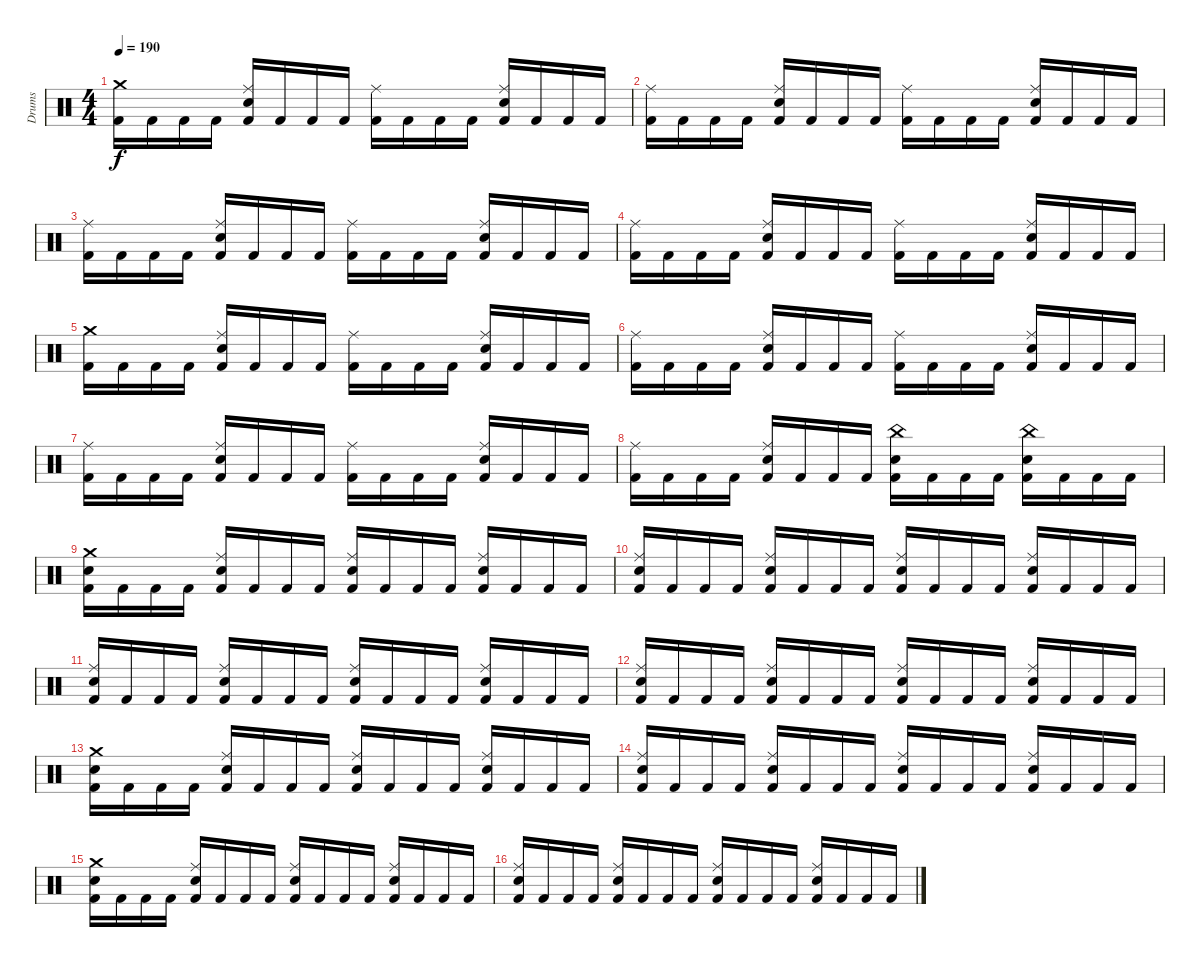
\track ("Drums" "Drums") {instrument percussion}
\staff {score}
\articulation defaults
\ts (4 4)
\tempo 190
\clef neutral
\ks c
("Crash medium (hit)" "Kick (hit) 2").16{dy f} "Kick (hit) 2".16 "Kick (hit) 2".16 "Kick (hit) 2".16 ("Ride (middle)" "Electric Snare (hit)" "Kick (hit) 2").16 "Kick (hit) 2".16 "Kick (hit) 2".16 "Kick (hit) 2".16 ("Ride (middle)" "Kick (hit) 2").16 "Kick (hit) 2".16 "Kick (hit) 2".16 "Kick (hit) 2".16 ("Ride (middle)" "Electric Snare (hit)" "Kick (hit) 2").16 "Kick (hit) 2".16 "Kick (hit) 2".16 "Kick (hit) 2".16 |
("Ride (middle)" "Kick (hit) 2").16 "Kick (hit) 2".16 "Kick (hit) 2".16 "Kick (hit) 2".16 ("Ride (middle)" "Electric Snare (hit)" "Kick (hit) 2").16 "Kick (hit) 2".16 "Kick (hit) 2".16 "Kick (hit) 2".16 ("Ride (middle)" "Kick (hit) 2").16 "Kick (hit) 2".16 "Kick (hit) 2".16 "Kick (hit) 2".16 ("Ride (middle)" "Electric Snare (hit)" "Kick (hit) 2").16 "Kick (hit) 2".16 "Kick (hit) 2".16 "Kick (hit) 2".16 |
("Ride (middle)" "Kick (hit) 2").16 "Kick (hit) 2".16 "Kick (hit) 2".16 "Kick (hit) 2".16 ("Ride (middle)" "Electric Snare (hit)" "Kick (hit) 2").16 "Kick (hit) 2".16 "Kick (hit) 2".16 "Kick (hit) 2".16 ("Ride (middle)" "Kick (hit) 2").16 "Kick (hit) 2".16 "Kick (hit) 2".16 "Kick (hit) 2".16 ("Ride (middle)" "Electric Snare (hit)" "Kick (hit) 2").16 "Kick (hit) 2".16 "Kick (hit) 2".16 "Kick (hit) 2".16 |
("Ride (middle)" "Kick (hit) 2").16 "Kick (hit) 2".16 "Kick (hit) 2".16 "Kick (hit) 2".16 ("Ride (middle)" "Electric Snare (hit)" "Kick (hit) 2").16 "Kick (hit) 2".16 "Kick (hit) 2".16 "Kick (hit) 2".16 ("Ride (middle)" "Kick (hit) 2").16 "Kick (hit) 2".16 "Kick (hit) 2".16 "Kick (hit) 2".16 ("Ride (middle)" "Electric Snare (hit)" "Kick (hit) 2").16 "Kick (hit) 2".16 "Kick (hit) 2".16 "Kick (hit) 2".16 |
("Crash medium (hit)" "Kick (hit) 2").16 "Kick (hit) 2".16 "Kick (hit) 2".16 "Kick (hit) 2".16 ("Ride (middle)" "Electric Snare (hit)" "Kick (hit) 2").16 "Kick (hit) 2".16 "Kick (hit) 2".16 "Kick (hit) 2".16 ("Ride (middle)" "Kick (hit) 2").16 "Kick (hit) 2".16 "Kick (hit) 2".16 "Kick (hit) 2".16 ("Ride (middle)" "Electric Snare (hit)" "Kick (hit) 2").16 "Kick (hit) 2".16 "Kick (hit) 2".16 "Kick (hit) 2".16 |
("Ride (middle)" "Kick (hit) 2").16 "Kick (hit) 2".16 "Kick (hit) 2".16 "Kick (hit) 2".16 ("Ride (middle)" "Electric Snare (hit)" "Kick (hit) 2").16 "Kick (hit) 2".16 "Kick (hit) 2".16 "Kick (hit) 2".16 ("Ride (middle)" "Kick (hit) 2").16 "Kick (hit) 2".16 "Kick (hit) 2".16 "Kick (hit) 2".16 ("Ride (middle)" "Electric Snare (hit)" "Kick (hit) 2").16 "Kick (hit) 2".16 "Kick (hit) 2".16 "Kick (hit) 2".16 |
("Ride (middle)" "Kick (hit) 2").16 "Kick (hit) 2".16 "Kick (hit) 2".16 "Kick (hit) 2".16 ("Ride (middle)" "Electric Snare (hit)" "Kick (hit) 2").16 "Kick (hit) 2".16 "Kick (hit) 2".16 "Kick (hit) 2".16 ("Ride (middle)" "Kick (hit) 2").16 "Kick (hit) 2".16 "Kick (hit) 2".16 "Kick (hit) 2".16 ("Ride (middle)" "Electric Snare (hit)" "Kick (hit) 2").16 "Kick (hit) 2".16 "Kick (hit) 2".16 "Kick (hit) 2".16 |
("Ride (middle)" "Kick (hit) 2").16 "Kick (hit) 2".16 "Kick (hit) 2".16 "Kick (hit) 2".16 ("Ride (middle)" "Electric Snare (hit)" "Kick (hit) 2").16 "Kick (hit) 2".16 "Kick (hit) 2".16 "Kick (hit) 2".16 ("China (hit)" "Electric Snare (hit)" "Kick (hit) 2").16 "Kick (hit) 2".16 "Kick (hit) 2".16 "Kick (hit) 2".16 ("China (hit)" "Electric Snare (hit)" "Kick (hit) 2").16 "Kick (hit) 2".16 "Kick (hit) 2".16 "Kick (hit) 2".16 |
("Crash medium (hit)" "Electric Snare (hit)" "Kick (hit) 2").16 "Kick (hit) 2".16 "Kick (hit) 2".16 "Kick (hit) 2".16 ("Ride (middle)" "Electric Snare (hit)" "Kick (hit) 2").16 "Kick (hit) 2".16 "Kick (hit) 2".16 "Kick (hit) 2".16 ("Ride (middle)" "Electric Snare (hit)" "Kick (hit) 2").16 "Kick (hit) 2".16 "Kick (hit) 2".16 "Kick (hit) 2".16 ("Ride (middle)" "Electric Snare (hit)" "Kick (hit) 2").16 "Kick (hit) 2".16 "Kick (hit) 2".16 "Kick (hit) 2".16 |
("Ride (middle)" "Electric Snare (hit)" "Kick (hit) 2").16 "Kick (hit) 2".16 "Kick (hit) 2".16 "Kick (hit) 2".16 ("Ride (middle)" "Electric Snare (hit)" "Kick (hit) 2").16 "Kick (hit) 2".16 "Kick (hit) 2".16 "Kick (hit) 2".16 ("Ride (middle)" "Electric Snare (hit)" "Kick (hit) 2").16 "Kick (hit) 2".16 "Kick (hit) 2".16 "Kick (hit) 2".16 ("Ride (middle)" "Electric Snare (hit)" "Kick (hit) 2").16 "Kick (hit) 2".16 "Kick (hit) 2".16 "Kick (hit) 2".16 |
("Ride (middle)" "Electric Snare (hit)" "Kick (hit) 2").16 "Kick (hit) 2".16 "Kick (hit) 2".16 "Kick (hit) 2".16 ("Ride (middle)" "Electric Snare (hit)" "Kick (hit) 2").16 "Kick (hit) 2".16 "Kick (hit) 2".16 "Kick (hit) 2".16 ("Ride (middle)" "Electric Snare (hit)" "Kick (hit) 2").16 "Kick (hit) 2".16 "Kick (hit) 2".16 "Kick (hit) 2".16 ("Ride (middle)" "Electric Snare (hit)" "Kick (hit) 2").16 "Kick (hit) 2".16 "Kick (hit) 2".16 "Kick (hit) 2".16 |
("Ride (middle)" "Electric Snare (hit)" "Kick (hit) 2").16 "Kick (hit) 2".16 "Kick (hit) 2".16 "Kick (hit) 2".16 ("Ride (middle)" "Electric Snare (hit)" "Kick (hit) 2").16 "Kick (hit) 2".16 "Kick (hit) 2".16 "Kick (hit) 2".16 ("Ride (middle)" "Electric Snare (hit)" "Kick (hit) 2").16 "Kick (hit) 2".16 "Kick (hit) 2".16 "Kick (hit) 2".16 ("Ride (middle)" "Electric Snare (hit)" "Kick (hit) 2").16 "Kick (hit) 2".16 "Kick (hit) 2".16 "Kick (hit) 2".16 |
("Crash medium (hit)" "Electric Snare (hit)" "Kick (hit) 2").16 "Kick (hit) 2".16 "Kick (hit) 2".16 "Kick (hit) 2".16 ("Ride (middle)" "Electric Snare (hit)" "Kick (hit) 2").16 "Kick (hit) 2".16 "Kick (hit) 2".16 "Kick (hit) 2".16 ("Ride (middle)" "Electric Snare (hit)" "Kick (hit) 2").16 "Kick (hit) 2".16 "Kick (hit) 2".16 "Kick (hit) 2".16 ("Ride (middle)" "Electric Snare (hit)" "Kick (hit) 2").16 "Kick (hit) 2".16 "Kick (hit) 2".16 "Kick (hit) 2".16 |
("Ride (middle)" "Electric Snare (hit)" "Kick (hit) 2").16 "Kick (hit) 2".16 "Kick (hit) 2".16 "Kick (hit) 2".16 ("Ride (middle)" "Electric Snare (hit)" "Kick (hit) 2").16 "Kick (hit) 2".16 "Kick (hit) 2".16 "Kick (hit) 2".16 ("Ride (middle)" "Electric Snare (hit)" "Kick (hit) 2").16 "Kick (hit) 2".16 "Kick (hit) 2".16 "Kick (hit) 2".16 ("Ride (middle)" "Electric Snare (hit)" "Kick (hit) 2").16 "Kick (hit) 2".16 "Kick (hit) 2".16 "Kick (hit) 2".16 |
("Crash medium (hit)" "Electric Snare (hit)" "Kick (hit) 2").16 "Kick (hit) 2".16 "Kick (hit) 2".16 "Kick (hit) 2".16 ("Ride (middle)" "Electric Snare (hit)" "Kick (hit) 2").16 "Kick (hit) 2".16 "Kick (hit) 2".16 "Kick (hit) 2".16 ("Ride (middle)" "Electric Snare (hit)" "Kick (hit) 2").16 "Kick (hit) 2".16 "Kick (hit) 2".16 "Kick (hit) 2".16 ("Ride (middle)" "Electric Snare (hit)" "Kick (hit) 2").16 "Kick (hit) 2".16 "Kick (hit) 2".16 "Kick (hit) 2".16 |
("Ride (middle)" "Electric Snare (hit)" "Kick (hit) 2").16 "Kick (hit) 2".16 "Kick (hit) 2".16 "Kick (hit) 2".16 ("Ride (middle)" "Electric Snare (hit)" "Kick (hit) 2").16 "Kick (hit) 2".16 "Kick (hit) 2".16 "Kick (hit) 2".16 ("Ride (middle)" "Electric Snare (hit)" "Kick (hit) 2").16 "Kick (hit) 2".16 "Kick (hit) 2".16 "Kick (hit) 2".16 ("Ride (middle)" "Electric Snare (hit)" "Kick (hit) 2").16 "Kick (hit) 2".16 "Kick (hit) 2".16 "Kick (hit) 2".16
